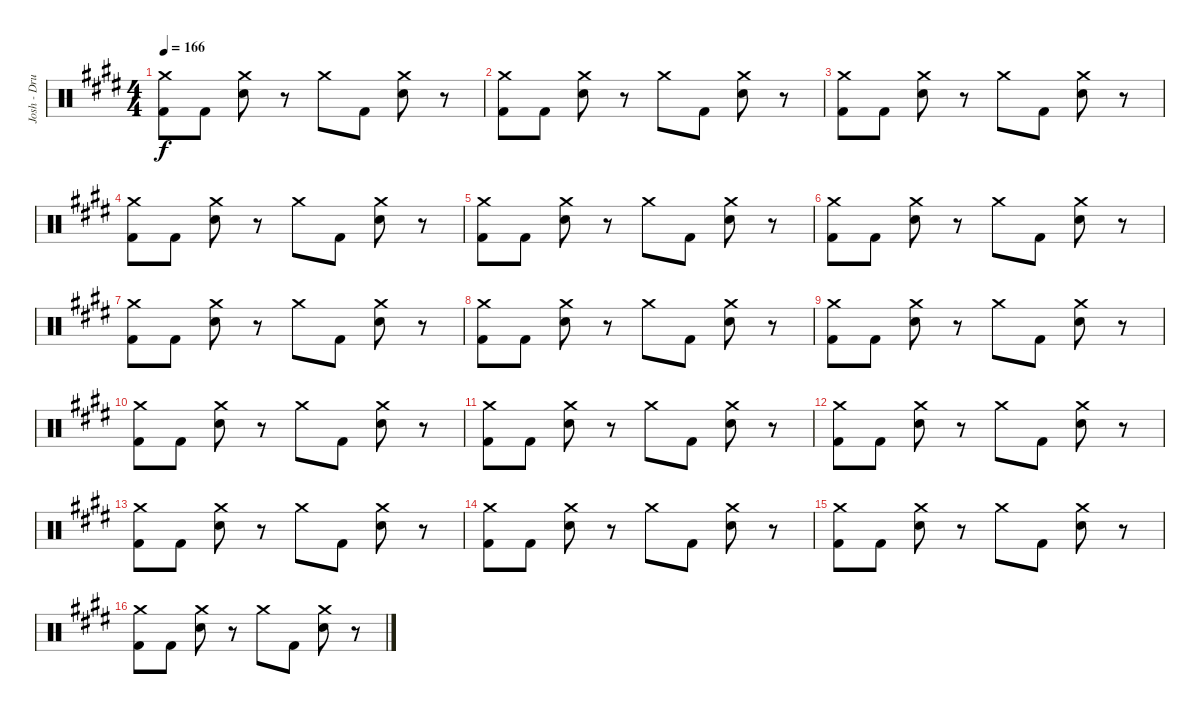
\track ("Josh - Drums" "Josh - Dru") {instrument percussion}
\staff {score}
\articulation defaults
\ts (4 4)
\tempo 166
\clef neutral
\ks e
("Crash medium (hit)" "Kick (hit) 2").8{dy f} "Kick (hit) 2".8 ("Crash medium (hit)" "Electric Snare (hit)").8 r.8 "Crash medium (hit)".8 "Kick (hit) 2".8 ("Crash medium (hit)" "Electric Snare (hit)").8 r.8 |
("Crash medium (hit)" "Kick (hit) 2").8 "Kick (hit) 2".8 ("Crash medium (hit)" "Electric Snare (hit)").8 r.8 "Crash medium (hit)".8 "Kick (hit) 2".8 ("Crash medium (hit)" "Electric Snare (hit)").8 r.8 |
("Crash medium (hit)" "Kick (hit) 2").8 "Kick (hit) 2".8 ("Crash medium (hit)" "Electric Snare (hit)").8 r.8 "Crash medium (hit)".8 "Kick (hit) 2".8 ("Crash medium (hit)" "Electric Snare (hit)").8 r.8 |
("Crash medium (hit)" "Kick (hit) 2").8 "Kick (hit) 2".8 ("Crash medium (hit)" "Electric Snare (hit)").8 r.8 "Crash medium (hit)".8 "Kick (hit) 2".8 ("Crash medium (hit)" "Electric Snare (hit)").8 r.8 |
("Crash medium (hit)" "Kick (hit) 2").8 "Kick (hit) 2".8 ("Crash medium (hit)" "Electric Snare (hit)").8 r.8 "Crash medium (hit)".8 "Kick (hit) 2".8 ("Crash medium (hit)" "Electric Snare (hit)").8 r.8 |
("Crash medium (hit)" "Kick (hit) 2").8 "Kick (hit) 2".8 ("Crash medium (hit)" "Electric Snare (hit)").8 r.8 "Crash medium (hit)".8 "Kick (hit) 2".8 ("Crash medium (hit)" "Electric Snare (hit)").8 r.8 |
("Crash medium (hit)" "Kick (hit) 2").8 "Kick (hit) 2".8 ("Crash medium (hit)" "Electric Snare (hit)").8 r.8 "Crash medium (hit)".8 "Kick (hit) 2".8 ("Crash medium (hit)" "Electric Snare (hit)").8 r.8 |
("Crash medium (hit)" "Kick (hit) 2").8 "Kick (hit) 2".8 ("Crash medium (hit)" "Electric Snare (hit)").8 r.8 "Crash medium (hit)".8 "Kick (hit) 2".8 ("Crash medium (hit)" "Electric Snare (hit)").8 r.8 |
("Crash medium (hit)" "Kick (hit) 2").8 "Kick (hit) 2".8 ("Crash medium (hit)" "Electric Snare (hit)").8 r.8 "Crash medium (hit)".8 "Kick (hit) 2".8 ("Crash medium (hit)" "Electric Snare (hit)").8 r.8 |
("Crash medium (hit)" "Kick (hit) 2").8 "Kick (hit) 2".8 ("Crash medium (hit)" "Electric Snare (hit)").8 r.8 "Crash medium (hit)".8 "Kick (hit) 2".8 ("Crash medium (hit)" "Electric Snare (hit)").8 r.8 |
("Crash medium (hit)" "Kick (hit) 2").8 "Kick (hit) 2".8 ("Crash medium (hit)" "Electric Snare (hit)").8 r.8 "Crash medium (hit)".8 "Kick (hit) 2".8 ("Crash medium (hit)" "Electric Snare (hit)").8 r.8 |
("Crash medium (hit)" "Kick (hit) 2").8 "Kick (hit) 2".8 ("Crash medium (hit)" "Electric Snare (hit)").8 r.8 "Crash medium (hit)".8 "Kick (hit) 2".8 ("Crash medium (hit)" "Electric Snare (hit)").8 r.8 |
("Crash medium (hit)" "Kick (hit) 2").8 "Kick (hit) 2".8 ("Crash medium (hit)" "Electric Snare (hit)").8 r.8 "Crash medium (hit)".8 "Kick (hit) 2".8 ("Crash medium (hit)" "Electric Snare (hit)").8 r.8 |
("Crash medium (hit)" "Kick (hit) 2").8 "Kick (hit) 2".8 ("Crash medium (hit)" "Electric Snare (hit)").8 r.8 "Crash medium (hit)".8 "Kick (hit) 2".8 ("Crash medium (hit)" "Electric Snare (hit)").8 r.8 |
("Crash medium (hit)" "Kick (hit) 2").8 "Kick (hit) 2".8 ("Crash medium (hit)" "Electric Snare (hit)").8 r.8 "Crash medium (hit)".8 "Kick (hit) 2".8 ("Crash medium (hit)" "Electric Snare (hit)").8 r.8 |
("Crash medium (hit)" "Kick (hit) 2").8 "Kick (hit) 2".8 ("Crash medium (hit)" "Electric Snare (hit)").8 r.8 "Crash medium (hit)".8 "Kick (hit) 2".8 ("Crash medium (hit)" "Electric Snare (hit)").8 r.8
